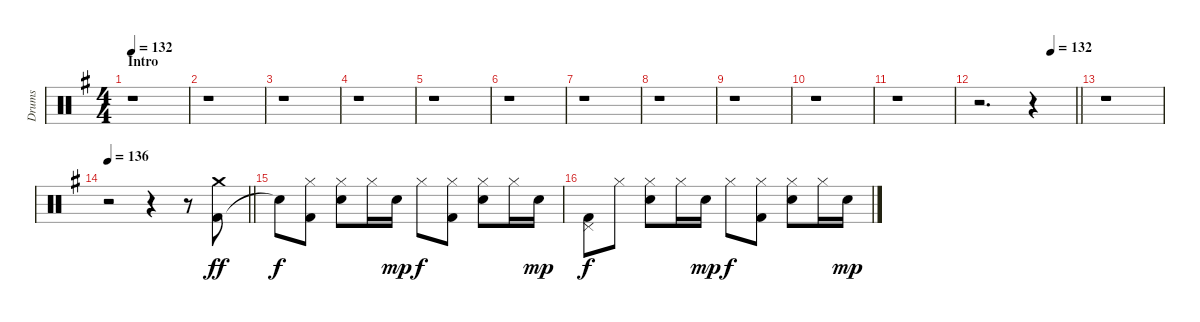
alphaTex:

\track ("Drums" "Drums") {instrument percussion}
\staff {score}
\articulation defaults
\ts (4 4)
\section ("" "Intro")
\tempo 132
\tempo 80
\tempo 132
\clef neutral
\ks g
r.1{dy ff} |
r.1 |
r.1 |
r.1 |
r.1 |
r.1 |
r.1 |
r.1 |
r.1 |
r.1 |
r.1 |
\tempo (132 0.75)
\barLineRight lightlight
r.2{d} r.4 |
\section ("" "")
r.1 |
\tempo 136
\barLineRight lightlight
r.2 r.4 r.8 ("Kick (hit) 2" "Crash medium (hit)").8 |
\section ("" "")
"Snare (hit)"{t}.8{dy f} ("Kick (hit) 2" "Hi-Hat (closed)").8 ("Snare (hit) 2" "Hi-Hat (closed)").8 "Hi-Hat (closed)".16 "Snare (hit) 2".16{dy mp} "Hi-Hat (closed)".8{dy f} ("Kick (hit) 2" "Hi-Hat (closed)").8 ("Snare (hit) 2" "Hi-Hat (closed)").8 "Hi-Hat (closed)".16 "Snare (hit) 2".16{dy mp} |
("Kick (hit) 2" "Pedal Hi-Hat (hit)").8{dy f} "Hi-Hat (closed)".8 ("Snare (hit) 2" "Hi-Hat (closed)").8 "Hi-Hat (closed)".16 "Snare (hit) 2".16{dy mp} "Hi-Hat (closed)".8{dy f} ("Kick (hit) 2" "Hi-Hat (closed)").8 ("Snare (hit) 2" "Hi-Hat (closed)").8 "Hi-Hat (closed)".16 "Snare (hit) 2".16{dy mp}
